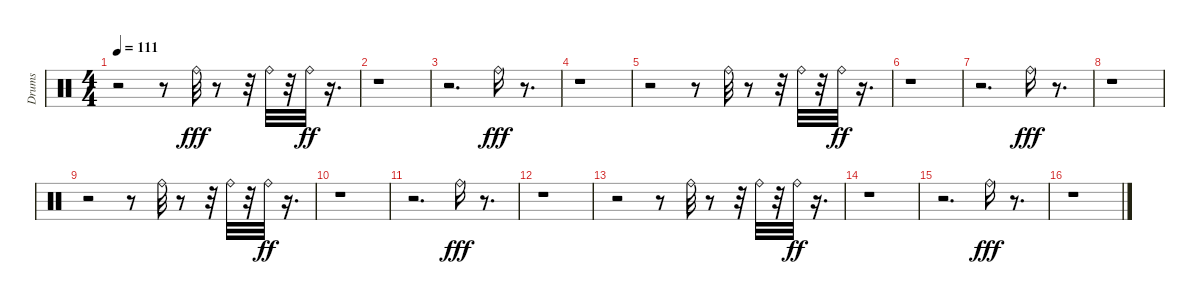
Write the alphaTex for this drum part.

\track ("Drums" "Drums") {instrument percussion}
\staff {score}
\articulation defaults
\ts (4 4)
\tempo 111
\clef neutral
\ks c
r.2{dy fff} r.8 "Ride (bell)".32 r.8 r.32 "Ride (bell)".32 r.32 "Ride (bell)".32{dy ff} r.16{d} |
r.1 |
r.2{d} "Ride (bell)".16{dy fff} r.8{d} |
r.1 |
r.2 r.8 "Ride (bell)".32 r.8 r.32 "Ride (bell)".32 r.32 "Ride (bell)".32{dy ff} r.16{d} |
r.1 |
r.2{d} "Ride (bell)".16{dy fff} r.8{d} |
r.1 |
r.2 r.8 "Ride (bell)".32 r.8 r.32 "Ride (bell)".32 r.32 "Ride (bell)".32{dy ff} r.16{d} |
r.1 |
r.2{d} "Ride (bell)".16{dy fff} r.8{d} |
r.1 |
r.2 r.8 "Ride (bell)".32 r.8 r.32 "Ride (bell)".32 r.32 "Ride (bell)".32{dy ff} r.16{d} |
r.1 |
r.2{d} "Ride (bell)".16{dy fff} r.8{d} |
r.1
